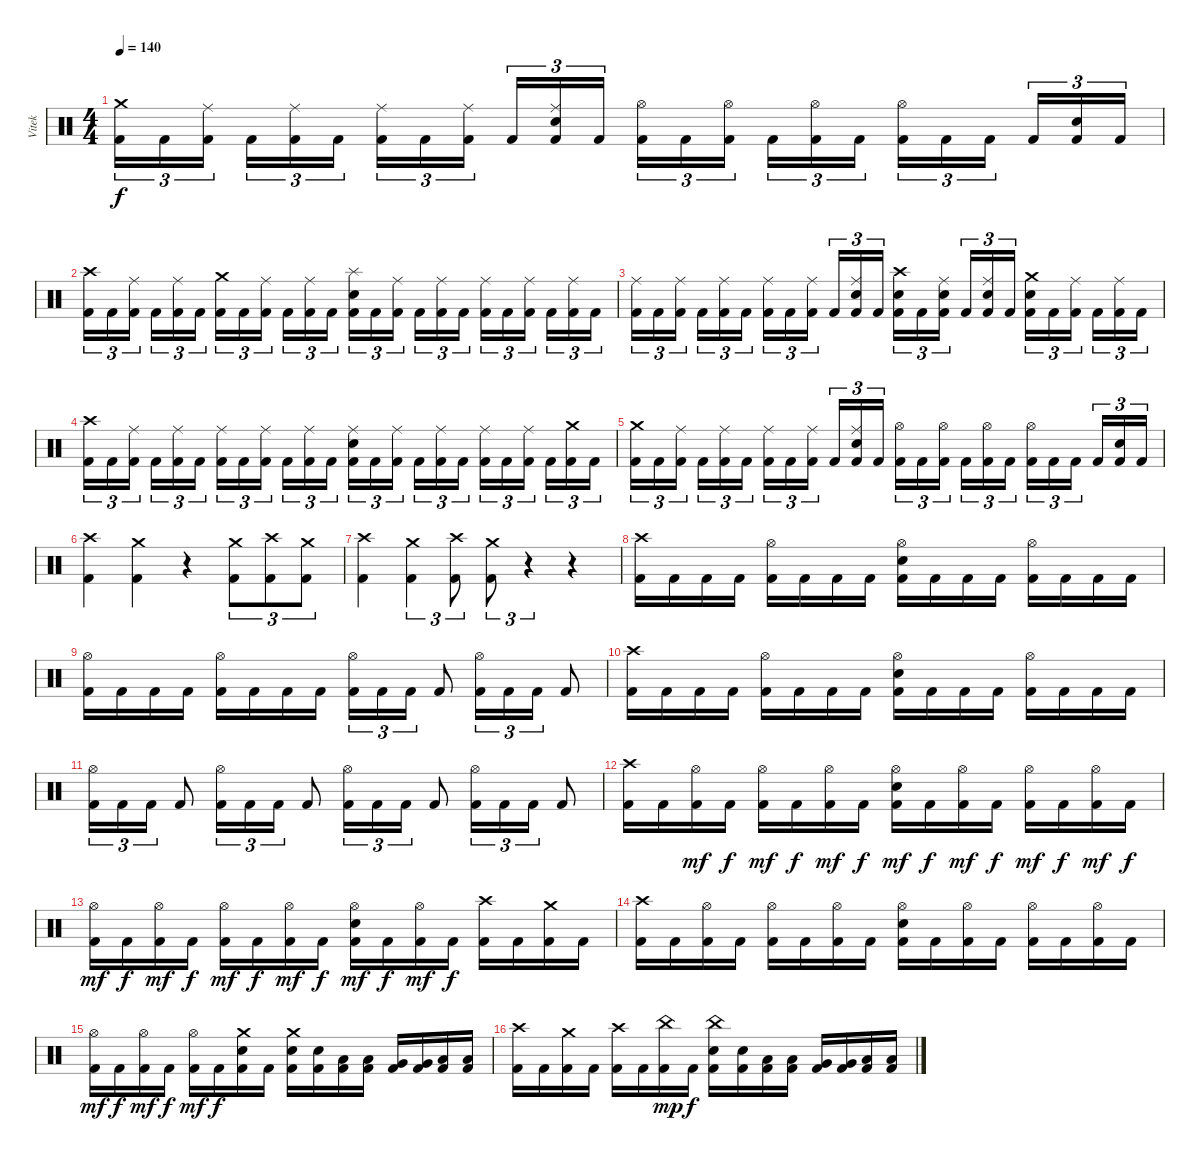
\track ("Vitek" "Vitek") {instrument percussion}
\staff {score}
\articulation defaults
\ts (4 4)
\tempo 140
\clef neutral
\ks c
("Crash medium (hit)" "Kick (hit) 2").16{tu (3 2) dy f} "Kick (hit) 2".16{tu (3 2)} ("Ride (middle)" "Kick (hit) 2").16{tu (3 2)} "Kick (hit) 2".16{tu (3 2)} ("Ride (middle)" "Kick (hit) 2").16{tu (3 2)} "Kick (hit) 2".16{tu (3 2)} ("Ride (middle)" "Kick (hit) 2").16{tu (3 2)} "Kick (hit) 2".16{tu (3 2)} ("Ride (middle)" "Kick (hit) 2").16{tu (3 2)} "Kick (hit) 2".16{tu (3 2)} ("Ride (middle)" "Electric Snare (hit)" "Kick (hit) 2").16{tu (3 2)} "Kick (hit) 2".16{tu (3 2)} ("Hi-Hat (open)" "Kick (hit) 2").16{tu (3 2)} "Kick (hit) 2".16{tu (3 2)} ("Hi-Hat (open)" "Kick (hit) 2").16{tu (3 2)} "Kick (hit) 2".16{tu (3 2)} ("Hi-Hat (open)" "Kick (hit) 2").16{tu (3 2)} "Kick (hit) 2".16{tu (3 2)} ("Hi-Hat (open)" "Kick (hit) 2").16{tu (3 2)} "Kick (hit) 2".16{tu (3 2)} "Kick (hit) 2".16{tu (3 2)} "Kick (hit) 2".16{tu (3 2)} ("Electric Snare (hit)" "Kick (hit) 2").16{tu (3 2)} "Kick (hit) 2".16{tu (3 2)} |
("Crash high (hit)" "Kick (hit) 2").16{tu (3 2)} "Kick (hit) 2".16{tu (3 2)} ("Ride (middle)" "Kick (hit) 2").16{tu (3 2)} "Kick (hit) 2".16{tu (3 2)} ("Ride (middle)" "Kick (hit) 2").16{tu (3 2)} "Kick (hit) 2".16{tu (3 2)} ("Crash medium (hit)" "Kick (hit) 2").16{tu (3 2)} "Kick (hit) 2".16{tu (3 2)} ("Ride (middle)" "Kick (hit) 2").16{tu (3 2)} "Kick (hit) 2".16{tu (3 2)} ("Ride (middle)" "Kick (hit) 2").16{tu (3 2)} "Kick (hit) 2".16{tu (3 2)} ("Splash (hit)" "Electric Snare (hit)" "Kick (hit) 2").16{tu (3 2)} "Kick (hit) 2".16{tu (3 2)} ("Ride (middle)" "Kick (hit) 2").16{tu (3 2)} "Kick (hit) 2".16{tu (3 2)} ("Ride (middle)" "Kick (hit) 2").16{tu (3 2)} "Kick (hit) 2".16{tu (3 2)} ("Ride (middle)" "Kick (hit) 2").16{tu (3 2)} "Kick (hit) 2".16{tu (3 2)} ("Ride (middle)" "Kick (hit) 2").16{tu (3 2)} "Kick (hit) 2".16{tu (3 2)} ("Ride (middle)" "Kick (hit) 2").16{tu (3 2)} "Kick (hit) 2".16{tu (3 2)} |
("Ride (middle)" "Kick (hit) 2").16{tu (3 2)} "Kick (hit) 2".16{tu (3 2)} ("Ride (middle)" "Kick (hit) 2").16{tu (3 2)} "Kick (hit) 2".16{tu (3 2)} ("Ride (middle)" "Kick (hit) 2").16{tu (3 2)} "Kick (hit) 2".16{tu (3 2)} ("Ride (middle)" "Kick (hit) 2").16{tu (3 2)} "Kick (hit) 2".16{tu (3 2)} ("Ride (middle)" "Kick (hit) 2").16{tu (3 2)} "Kick (hit) 2".16{tu (3 2)} ("Ride (middle)" "Electric Snare (hit)" "Kick (hit) 2").16{tu (3 2)} "Kick (hit) 2".16{tu (3 2)} ("Crash high (hit)" "Electric Snare (hit)" "Kick (hit) 2").16{tu (3 2)} "Kick (hit) 2".16{tu (3 2)} ("Ride (middle)" "Electric Snare (hit)" "Kick (hit) 2").16{tu (3 2)} "Kick (hit) 2".16{tu (3 2)} ("Ride (middle)" "Electric Snare (hit)" "Kick (hit) 2").16{tu (3 2)} "Kick (hit) 2".16{tu (3 2)} ("Crash medium (hit)" "Electric Snare (hit)" "Kick (hit) 2").16{tu (3 2)} "Kick (hit) 2".16{tu (3 2)} ("Ride (middle)" "Kick (hit) 2").16{tu (3 2)} "Kick (hit) 2".16{tu (3 2)} ("Ride (middle)" "Kick (hit) 2").16{tu (3 2)} "Kick (hit) 2".16{tu (3 2)} |
("Crash high (hit)" "Kick (hit) 2").16{tu (3 2)} "Kick (hit) 2".16{tu (3 2)} ("Ride (middle)" "Kick (hit) 2").16{tu (3 2)} "Kick (hit) 2".16{tu (3 2)} ("Ride (middle)" "Kick (hit) 2").16{tu (3 2)} "Kick (hit) 2".16{tu (3 2)} ("Ride (middle)" "Kick (hit) 2").16{tu (3 2)} "Kick (hit) 2".16{tu (3 2)} ("Ride (middle)" "Kick (hit) 2").16{tu (3 2)} "Kick (hit) 2".16{tu (3 2)} ("Ride (middle)" "Kick (hit) 2").16{tu (3 2)} "Kick (hit) 2".16{tu (3 2)} ("Ride (middle)" "Electric Snare (hit)" "Kick (hit) 2").16{tu (3 2)} "Kick (hit) 2".16{tu (3 2)} ("Ride (middle)" "Kick (hit) 2").16{tu (3 2)} "Kick (hit) 2".16{tu (3 2)} ("Ride (middle)" "Kick (hit) 2").16{tu (3 2)} "Kick (hit) 2".16{tu (3 2)} ("Ride (middle)" "Kick (hit) 2").16{tu (3 2)} "Kick (hit) 2".16{tu (3 2)} ("Ride (middle)" "Kick (hit) 2").16{tu (3 2)} "Kick (hit) 2".16{tu (3 2)} ("Crash medium (hit)" "Kick (hit) 2").16{tu (3 2)} "Kick (hit) 2".16{tu (3 2)} |
("Crash medium (hit)" "Kick (hit) 2").16{tu (3 2)} "Kick (hit) 2".16{tu (3 2)} ("Ride (middle)" "Kick (hit) 2").16{tu (3 2)} "Kick (hit) 2".16{tu (3 2)} ("Ride (middle)" "Kick (hit) 2").16{tu (3 2)} "Kick (hit) 2".16{tu (3 2)} ("Ride (middle)" "Kick (hit) 2").16{tu (3 2)} "Kick (hit) 2".16{tu (3 2)} ("Ride (middle)" "Kick (hit) 2").16{tu (3 2)} "Kick (hit) 2".16{tu (3 2)} ("Ride (middle)" "Electric Snare (hit)" "Kick (hit) 2").16{tu (3 2)} "Kick (hit) 2".16{tu (3 2)} ("Hi-Hat (open)" "Kick (hit) 2").16{tu (3 2)} "Kick (hit) 2".16{tu (3 2)} ("Hi-Hat (open)" "Kick (hit) 2").16{tu (3 2)} "Kick (hit) 2".16{tu (3 2)} ("Hi-Hat (open)" "Kick (hit) 2").16{tu (3 2)} "Kick (hit) 2".16{tu (3 2)} ("Hi-Hat (open)" "Kick (hit) 2").16{tu (3 2)} "Kick (hit) 2".16{tu (3 2)} "Kick (hit) 2".16{tu (3 2)} "Kick (hit) 2".16{tu (3 2)} ("Electric Snare (hit)" "Kick (hit) 2").16{tu (3 2)} "Kick (hit) 2".16{tu (3 2)} |
("Crash high (hit)" "Kick (hit) 2").4 ("Crash medium (hit)" "Kick (hit) 2").4 r.4{volume 0} ("Crash medium (hit)" "Kick (hit) 2").8{tu (3 2) volume 16} ("Crash high (hit)" "Kick (hit) 2").8{tu (3 2)} ("Crash medium (hit)" "Kick (hit) 2").8{tu (3 2)} |
("Crash high (hit)" "Kick (hit) 2").4 ("Crash medium (hit)" "Kick (hit) 2").4{tu (3 2)} ("Crash high (hit)" "Kick (hit) 2").8{tu (3 2)} ("Crash medium (hit)" "Kick (hit) 2").8{tu (3 2)} r.4{tu (3 2) volume 0} r.4 |
("Crash high (hit)" "Kick (hit) 2").16{volume 16} "Kick (hit) 2".16 "Kick (hit) 2".16 "Kick (hit) 2".16 ("Hi-Hat (open)" "Kick (hit) 2").16 "Kick (hit) 2".16 "Kick (hit) 2".16 "Kick (hit) 2".16 ("Hi-Hat (open)" "Electric Snare (hit)" "Kick (hit) 2").16 "Kick (hit) 2".16 "Kick (hit) 2".16 "Kick (hit) 2".16 ("Hi-Hat (open)" "Kick (hit) 2").16 "Kick (hit) 2".16 "Kick (hit) 2".16 "Kick (hit) 2".16 |
("Hi-Hat (open)" "Kick (hit) 2").16 "Kick (hit) 2".16 "Kick (hit) 2".16 "Kick (hit) 2".16 ("Hi-Hat (open)" "Kick (hit) 2").16 "Kick (hit) 2".16 "Kick (hit) 2".16 "Kick (hit) 2".16 ("Hi-Hat (open)" "Kick (hit) 2").16{tu (3 2)} "Kick (hit) 2".16{tu (3 2)} "Kick (hit) 2".16{tu (3 2)} "Kick (hit) 2".8 ("Hi-Hat (open)" "Kick (hit) 2").16{tu (3 2)} "Kick (hit) 2".16{tu (3 2)} "Kick (hit) 2".16{tu (3 2)} "Kick (hit) 2".8 |
("Crash high (hit)" "Kick (hit) 2").16{volume 16} "Kick (hit) 2".16 "Kick (hit) 2".16 "Kick (hit) 2".16 ("Hi-Hat (open)" "Kick (hit) 2").16 "Kick (hit) 2".16 "Kick (hit) 2".16 "Kick (hit) 2".16 ("Hi-Hat (open)" "Electric Snare (hit)" "Kick (hit) 2").16 "Kick (hit) 2".16 "Kick (hit) 2".16 "Kick (hit) 2".16 ("Hi-Hat (open)" "Kick (hit) 2").16 "Kick (hit) 2".16 "Kick (hit) 2".16 "Kick (hit) 2".16 |
("Hi-Hat (open)" "Kick (hit) 2").16{tu (3 2)} "Kick (hit) 2".16{tu (3 2)} "Kick (hit) 2".16{tu (3 2)} "Kick (hit) 2".8 ("Hi-Hat (open)" "Kick (hit) 2").16{tu (3 2)} "Kick (hit) 2".16{tu (3 2)} "Kick (hit) 2".16{tu (3 2)} "Kick (hit) 2".8 ("Hi-Hat (open)" "Kick (hit) 2").16{tu (3 2)} "Kick (hit) 2".16{tu (3 2)} "Kick (hit) 2".16{tu (3 2)} "Kick (hit) 2".8 ("Hi-Hat (open)" "Kick (hit) 2").16{tu (3 2)} "Kick (hit) 2".16{tu (3 2)} "Kick (hit) 2".16{tu (3 2)} "Kick (hit) 2".8 |
("Crash high (hit)" "Kick (hit) 2").16 "Kick (hit) 2".16 ("Hi-Hat (open)" "Kick (hit) 2").16{dy mf} "Kick (hit) 2".16{dy f} ("Hi-Hat (open)" "Kick (hit) 2").16{dy mf} "Kick (hit) 2".16{dy f} ("Hi-Hat (open)" "Kick (hit) 2").16{dy mf} "Kick (hit) 2".16{dy f} ("Hi-Hat (open)" "Electric Snare (hit)" "Kick (hit) 2").16{dy mf} "Kick (hit) 2".16{dy f} ("Hi-Hat (open)" "Kick (hit) 2").16{dy mf} "Kick (hit) 2".16{dy f} ("Hi-Hat (open)" "Kick (hit) 2").16{dy mf} "Kick (hit) 2".16{dy f} ("Hi-Hat (open)" "Kick (hit) 2").16{dy mf} "Kick (hit) 2".16{dy f} |
("Hi-Hat (open)" "Kick (hit) 2").16{dy mf} "Kick (hit) 2".16{dy f} ("Hi-Hat (open)" "Kick (hit) 2").16{dy mf} "Kick (hit) 2".16{dy f} ("Hi-Hat (open)" "Kick (hit) 2").16{dy mf} "Kick (hit) 2".16{dy f} ("Hi-Hat (open)" "Kick (hit) 2").16{dy mf} "Kick (hit) 2".16{dy f} ("Hi-Hat (open)" "Electric Snare (hit)" "Kick (hit) 2").16{dy mf} "Kick (hit) 2".16{dy f} ("Hi-Hat (open)" "Kick (hit) 2").16{dy mf} "Kick (hit) 2".16{dy f} ("Crash high (hit)" "Kick (hit) 2").16 "Kick (hit) 2".16 ("Crash medium (hit)" "Kick (hit) 2").16 "Kick (hit) 2".16 |
("Crash high (hit)" "Kick (hit) 2").16 "Kick (hit) 2".16 ("Hi-Hat (open)" "Kick (hit) 2").16 "Kick (hit) 2".16 ("Hi-Hat (open)" "Kick (hit) 2").16 "Kick (hit) 2".16 ("Hi-Hat (open)" "Kick (hit) 2").16 "Kick (hit) 2".16 ("Hi-Hat (open)" "Electric Snare (hit)" "Kick (hit) 2").16 "Kick (hit) 2".16 ("Hi-Hat (open)" "Kick (hit) 2").16 "Kick (hit) 2".16 ("Hi-Hat (open)" "Kick (hit) 2").16 "Kick (hit) 2".16 ("Hi-Hat (open)" "Kick (hit) 2").16 "Kick (hit) 2".16 |
("Hi-Hat (open)" "Kick (hit) 2").16{dy mf} "Kick (hit) 2".16{dy f} ("Hi-Hat (open)" "Kick (hit) 2").16{dy mf} "Kick (hit) 2".16{dy f} ("Hi-Hat (open)" "Kick (hit) 2").16{dy mf} "Kick (hit) 2".16{dy f} ("Crash medium (hit)" "Electric Snare (hit)" "Kick (hit) 2").16 "Kick (hit) 2".16 ("Crash medium (hit)" "Electric Snare (hit)" "Kick (hit) 2").16 ("Electric Snare (hit)" "Kick (hit) 2").16 ("Low Tom (hit)" "Kick (hit) 2").16 ("Low Tom (hit)" "Kick (hit) 2").16 ("Very Low Tom (hit)" "Kick (hit) 2").16 ("Very Low Tom (hit)" "Kick (hit) 2").16 ("Low Floor Tom (hit)" "Kick (hit) 2").16 ("Low Floor Tom (hit)" "Kick (hit) 2").16 |
("Crash high (hit)" "Kick (hit) 2").16 "Kick (hit) 2".16 ("Crash medium (hit)" "Kick (hit) 2").16 "Kick (hit) 2".16 ("Crash high (hit)" "Kick (hit) 2").16 "Kick (hit) 2".16 ("China (hit)" "Kick (hit) 2").16{dy mp} "Kick (hit) 2".16{dy f} ("China (hit)" "Electric Snare (hit)" "Kick (hit) 2").16 ("Electric Snare (hit)" "Kick (hit) 2").16 ("Low Tom (hit)" "Kick (hit) 2").16 ("Low Tom (hit)" "Kick (hit) 2").16 ("Very Low Tom (hit)" "Kick (hit) 2").16 ("Very Low Tom (hit)" "Kick (hit) 2").16 ("Low Floor Tom (hit)" "Kick (hit) 2").16 ("Low Floor Tom (hit)" "Kick (hit) 2").16
